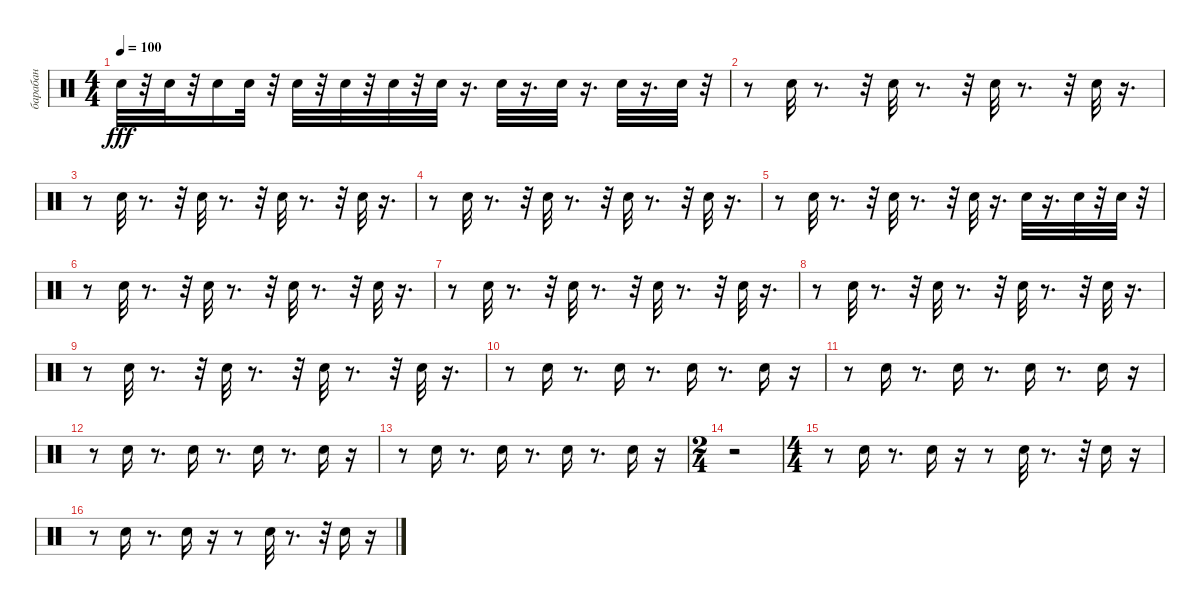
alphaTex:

\track ("барабан" "барабан") {instrument percussion}
\staff {score}
\articulation defaults
\ts (4 4)
\tempo 100
\clef neutral
\ks c "Snare (hit) 2".32{dy fff}
r.32 "Snare (hit) 2".32 r.32 "Snare (hit) 2".16 "Snare (hit) 2".32 r.32 "Snare (hit) 2".32 r.32 "Snare (hit) 2".32 r.32 "Snare (hit) 2".32 r.32 "Snare (hit) 2".32 r.16{d} "Snare (hit) 2".32 r.16{d} "Snare (hit) 2".32 r.16{d} "Snare (hit) 2".32 r.16{d} "Snare (hit) 2".32 r.32 |
r.8 "Snare (hit) 2".32 r.8{d} r.32 "Snare (hit) 2".32 r.8{d} r.32 "Snare (hit) 2".32 r.8{d} r.32 "Snare (hit) 2".32 r.16{d} |
r.8 "Snare (hit) 2".32 r.8{d} r.32 "Snare (hit) 2".32 r.8{d} r.32 "Snare (hit) 2".32 r.8{d} r.32 "Snare (hit) 2".32 r.16{d} |
r.8 "Snare (hit) 2".32 r.8{d} r.32 "Snare (hit) 2".32 r.8{d} r.32 "Snare (hit) 2".32 r.8{d} r.32 "Snare (hit) 2".32 r.16{d} |
r.8 "Snare (hit) 2".32 r.8{d} r.32 "Snare (hit) 2".32 r.8{d} r.32 "Snare (hit) 2".32 r.16{d} "Snare (hit) 2".32 r.16{d} "Snare (hit) 2".32 r.32 "Snare (hit) 2".32 r.32 |
r.8 "Snare (hit) 2".32 r.8{d} r.32 "Snare (hit) 2".32 r.8{d} r.32 "Snare (hit) 2".32 r.8{d} r.32 "Snare (hit) 2".32 r.16{d} |
r.8 "Snare (hit) 2".32 r.8{d} r.32 "Snare (hit) 2".32 r.8{d} r.32 "Snare (hit) 2".32 r.8{d} r.32 "Snare (hit) 2".32 r.16{d} |
r.8 "Snare (hit) 2".32 r.8{d} r.32 "Snare (hit) 2".32 r.8{d} r.32 "Snare (hit) 2".32 r.8{d} r.32 "Snare (hit) 2".32 r.16{d} |
r.8 "Snare (hit) 2".32 r.8{d} r.32 "Snare (hit) 2".32 r.8{d} r.32 "Snare (hit) 2".32 r.8{d} r.32 "Snare (hit) 2".32 r.16{d} |
r.8 "Snare (hit) 2".16 r.8{d} "Snare (hit) 2".16 r.8{d} "Snare (hit) 2".16 r.8{d} "Snare (hit) 2".16 r.16 |
r.8 "Snare (hit) 2".16 r.8{d} "Snare (hit) 2".16 r.8{d} "Snare (hit) 2".16 r.8{d} "Snare (hit) 2".16 r.16 |
r.8 "Snare (hit) 2".16 r.8{d} "Snare (hit) 2".16 r.8{d} "Snare (hit) 2".16 r.8{d} "Snare (hit) 2".16 r.16 |
r.8 "Snare (hit) 2".16 r.8{d} "Snare (hit) 2".16 r.8{d} "Snare (hit) 2".16 r.8{d} "Snare (hit) 2".16 r.16 |
\ts (2 4)
r.2 |
\ts (4 4)
r.8 "Snare (hit) 2".16 r.8{d} "Snare (hit) 2".16 r.16 r.8 "Snare (hit) 2".32 r.8{d} r.32 "Snare (hit) 2".16 r.16 |
r.8 "Snare (hit) 2".16 r.8{d} "Snare (hit) 2".16 r.16 r.8 "Snare (hit) 2".32 r.8{d} r.32 "Snare (hit) 2".16 r.16
